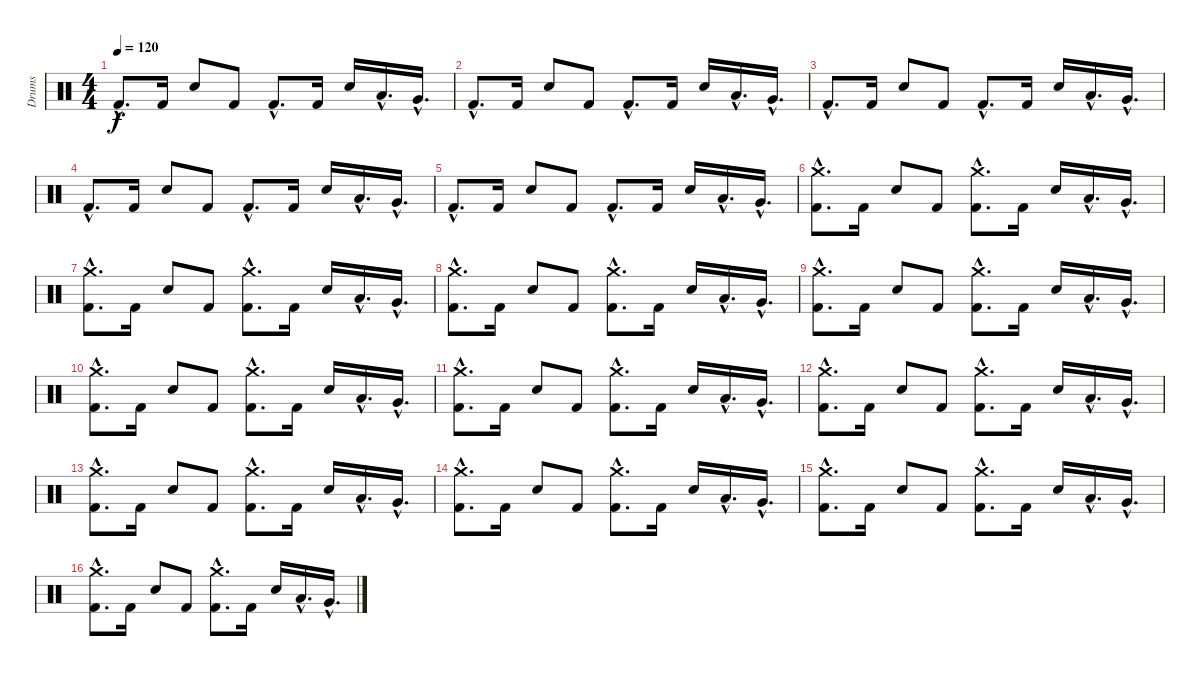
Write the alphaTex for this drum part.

\track ("Drums" "Drums") {instrument percussion}
\staff {score}
\articulation defaults
\ts (4 4)
\tempo 120
\clef neutral
\ks c "Kick (hit) 2"{hac}.8{d dy f} "Kick (hit) 2".16 "Electric Snare (hit)".8 "Kick (hit) 2".8 "Kick (hit) 2"{hac}.8{d} "Kick (hit) 2".16 "Electric Snare (hit)".16 "Low Tom (hit)"{hac}.16{d} "Very Low Tom (hit)"{hac}.16{d}
|
"Kick (hit) 2"{hac}.8{d} "Kick (hit) 2".16 "Electric Snare (hit)".8 "Kick (hit) 2".8 "Kick (hit) 2"{hac}.8{d} "Kick (hit) 2".16 "Electric Snare (hit)".16 "Low Tom (hit)"{hac}.16{d} "Very Low Tom (hit)"{hac}.16{d} |
"Kick (hit) 2"{hac}.8{d} "Kick (hit) 2".16 "Electric Snare (hit)".8 "Kick (hit) 2".8 "Kick (hit) 2"{hac}.8{d} "Kick (hit) 2".16 "Electric Snare (hit)".16 "Low Tom (hit)"{hac}.16{d} "Very Low Tom (hit)"{hac}.16{d} |
"Kick (hit) 2"{hac}.8{d} "Kick (hit) 2".16 "Electric Snare (hit)".8 "Kick (hit) 2".8 "Kick (hit) 2"{hac}.8{d} "Kick (hit) 2".16 "Electric Snare (hit)".16 "Low Tom (hit)"{hac}.16{d} "Very Low Tom (hit)"{hac}.16{d} |
"Kick (hit) 2"{hac}.8{d} "Kick (hit) 2".16 "Electric Snare (hit)".8 "Kick (hit) 2".8 "Kick (hit) 2"{hac}.8{d} "Kick (hit) 2".16 "Electric Snare (hit)".16 "Low Tom (hit)"{hac}.16{d} "Very Low Tom (hit)"{hac}.16{d} |
("Crash medium (hit)"{hac} "Kick (hit) 2"{hac}).8{d} "Kick (hit) 2".16 "Electric Snare (hit)".8 "Kick (hit) 2".8 ("Crash medium (hit)"{hac} "Kick (hit) 2"{hac}).8{d} "Kick (hit) 2".16 "Electric Snare (hit)".16 "Low Tom (hit)"{hac}.16{d} "Very Low Tom (hit)"{hac}.16{d} |
("Crash medium (hit)"{hac} "Kick (hit) 2"{hac}).8{d} "Kick (hit) 2".16 "Electric Snare (hit)".8 "Kick (hit) 2".8 ("Crash medium (hit)"{hac} "Kick (hit) 2"{hac}).8{d} "Kick (hit) 2".16 "Electric Snare (hit)".16 "Low Tom (hit)"{hac}.16{d} "Very Low Tom (hit)"{hac}.16{d} |
("Crash medium (hit)"{hac} "Kick (hit) 2"{hac}).8{d} "Kick (hit) 2".16 "Electric Snare (hit)".8 "Kick (hit) 2".8 ("Crash medium (hit)"{hac} "Kick (hit) 2"{hac}).8{d} "Kick (hit) 2".16 "Electric Snare (hit)".16 "Low Tom (hit)"{hac}.16{d} "Very Low Tom (hit)"{hac}.16{d} |
("Crash medium (hit)"{hac} "Kick (hit) 2"{hac}).8{d} "Kick (hit) 2".16 "Electric Snare (hit)".8 "Kick (hit) 2".8 ("Crash medium (hit)"{hac} "Kick (hit) 2"{hac}).8{d} "Kick (hit) 2".16 "Electric Snare (hit)".16 "Low Tom (hit)"{hac}.16{d} "Very Low Tom (hit)"{hac}.16{d} |
("Crash medium (hit)"{hac} "Kick (hit) 2"{hac}).8{d} "Kick (hit) 2".16 "Electric Snare (hit)".8 "Kick (hit) 2".8 ("Crash medium (hit)"{hac} "Kick (hit) 2"{hac}).8{d} "Kick (hit) 2".16 "Electric Snare (hit)".16 "Low Tom (hit)"{hac}.16{d} "Very Low Tom (hit)"{hac}.16{d} |
("Crash medium (hit)"{hac} "Kick (hit) 2"{hac}).8{d} "Kick (hit) 2".16 "Electric Snare (hit)".8 "Kick (hit) 2".8 ("Crash medium (hit)"{hac} "Kick (hit) 2"{hac}).8{d} "Kick (hit) 2".16 "Electric Snare (hit)".16 "Low Tom (hit)"{hac}.16{d} "Very Low Tom (hit)"{hac}.16{d} |
("Crash medium (hit)"{hac} "Kick (hit) 2"{hac}).8{d} "Kick (hit) 2".16 "Electric Snare (hit)".8 "Kick (hit) 2".8 ("Crash medium (hit)"{hac} "Kick (hit) 2"{hac}).8{d} "Kick (hit) 2".16 "Electric Snare (hit)".16 "Low Tom (hit)"{hac}.16{d} "Very Low Tom (hit)"{hac}.16{d} |
("Crash medium (hit)"{hac} "Kick (hit) 2"{hac}).8{d} "Kick (hit) 2".16 "Electric Snare (hit)".8 "Kick (hit) 2".8 ("Crash medium (hit)"{hac} "Kick (hit) 2"{hac}).8{d} "Kick (hit) 2".16 "Electric Snare (hit)".16 "Low Tom (hit)"{hac}.16{d} "Very Low Tom (hit)"{hac}.16{d} |
("Crash medium (hit)"{hac} "Kick (hit) 2"{hac}).8{d} "Kick (hit) 2".16 "Electric Snare (hit)".8 "Kick (hit) 2".8 ("Crash medium (hit)"{hac} "Kick (hit) 2"{hac}).8{d} "Kick (hit) 2".16 "Electric Snare (hit)".16 "Low Tom (hit)"{hac}.16{d} "Very Low Tom (hit)"{hac}.16{d} |
("Crash medium (hit)"{hac} "Kick (hit) 2"{hac}).8{d} "Kick (hit) 2".16 "Electric Snare (hit)".8 "Kick (hit) 2".8 ("Crash medium (hit)"{hac} "Kick (hit) 2"{hac}).8{d} "Kick (hit) 2".16 "Electric Snare (hit)".16 "Low Tom (hit)"{hac}.16{d} "Very Low Tom (hit)"{hac}.16{d} |
("Crash medium (hit)"{hac} "Kick (hit) 2"{hac}).8{d} "Kick (hit) 2".16 "Electric Snare (hit)".8 "Kick (hit) 2".8 ("Crash medium (hit)"{hac} "Kick (hit) 2"{hac}).8{d} "Kick (hit) 2".16 "Electric Snare (hit)".16 "Low Tom (hit)"{hac}.16{d} "Very Low Tom (hit)"{hac}.16{d}
